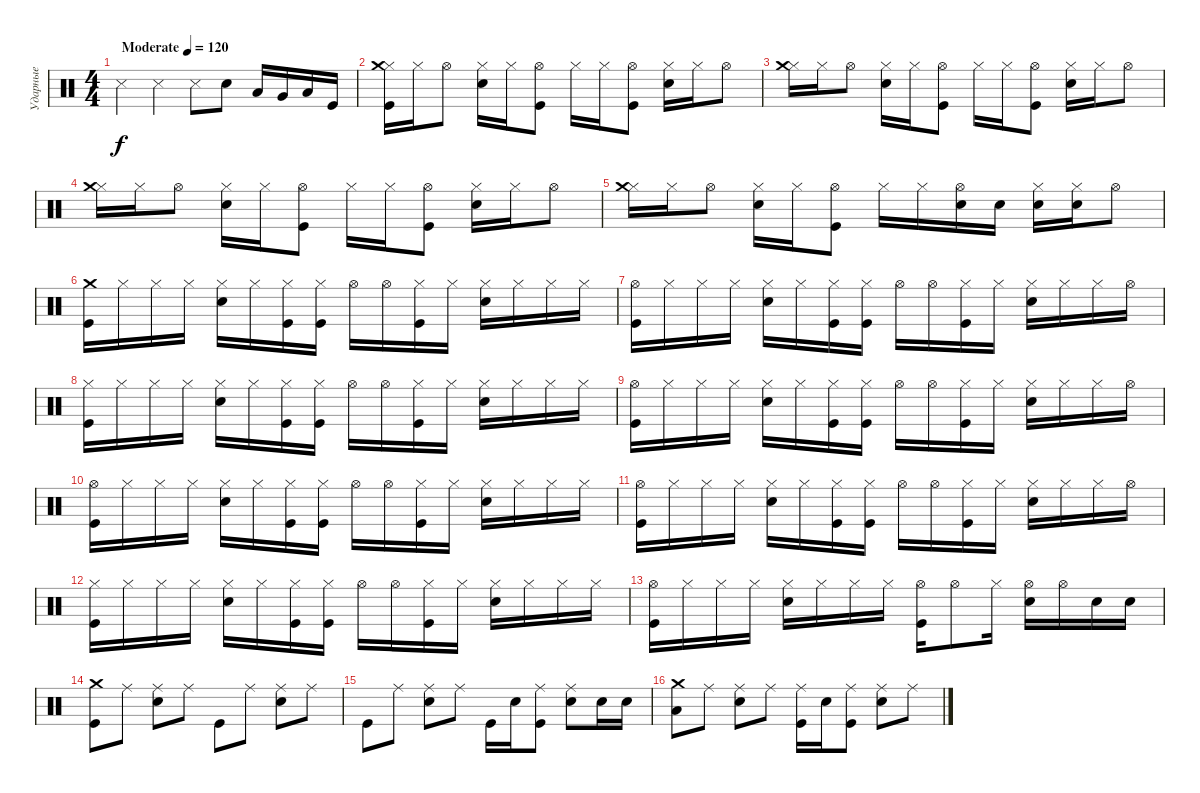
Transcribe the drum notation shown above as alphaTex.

\track ("Ударные" "Ударные") {instrument percussion}
\staff {score}
\articulation defaults
\ts (4 4)
\tempo (120 "Moderate")
\clef neutral
\ks c "Snare (side stick) 3".4{dy f} "Snare (side stick) 3".4 "Snare (side stick) 3".8 "Snare (hit) 2".8 "Low Tom (hit)".16 "Very Low Tom (hit)".16 "Low Floor Tom (hit)".16 "Kick (hit)".16
|
("Hi-Hat (closed)" "Kick (hit)" "Crash medium (hit)").16 "Hi-Hat (closed)".16 "Hi-Hat (open)".8 ("Hi-Hat (closed)" "Snare (hit) 2").16 "Hi-Hat (closed)".16 ("Hi-Hat (open)" "Kick (hit)").8 "Hi-Hat (closed)".16 "Hi-Hat (closed)".16 ("Hi-Hat (open)" "Kick (hit)").8 ("Hi-Hat (closed)" "Snare (hit) 2").16 "Hi-Hat (closed)".16 "Hi-Hat (open)".8 |
("Hi-Hat (closed)" "Crash medium (hit)").16 "Hi-Hat (closed)".16 "Hi-Hat (open)".8 ("Hi-Hat (closed)" "Snare (hit) 2").16 "Hi-Hat (closed)".16 ("Hi-Hat (open)" "Kick (hit)").8 "Hi-Hat (closed)".16 "Hi-Hat (closed)".16 ("Hi-Hat (open)" "Kick (hit)").8 ("Hi-Hat (closed)" "Snare (hit) 2").16 "Hi-Hat (closed)".16 "Hi-Hat (open)".8 |
("Hi-Hat (closed)" "Crash medium (hit)").16 "Hi-Hat (closed)".16 "Hi-Hat (open)".8 ("Hi-Hat (closed)" "Snare (hit) 2").16 "Hi-Hat (closed)".16 ("Hi-Hat (open)" "Kick (hit)").8 "Hi-Hat (closed)".16 "Hi-Hat (closed)".16 ("Hi-Hat (open)" "Kick (hit)").8 ("Hi-Hat (closed)" "Snare (hit) 2").16 "Hi-Hat (closed)".16 "Hi-Hat (open)".8 |
("Hi-Hat (closed)" "Crash medium (hit)").16 "Hi-Hat (closed)".16 "Hi-Hat (open)".8 ("Hi-Hat (closed)" "Snare (hit) 2").16 "Hi-Hat (closed)".16 ("Hi-Hat (open)" "Kick (hit)").8 "Hi-Hat (closed)".16 "Hi-Hat (closed)".16 ("Hi-Hat (open)" "Snare (hit) 2").16 "Snare (hit) 2".16 ("Hi-Hat (closed)" "Snare (hit) 2").16 ("Hi-Hat (closed)" "Snare (hit) 2").16 "Hi-Hat (open)".8 |
("Crash medium (hit)" "Kick (hit)").16 "Hi-Hat (closed)".16 "Hi-Hat (closed)".16 "Hi-Hat (closed)".16 ("Hi-Hat (closed)" "Snare (hit) 2").16 "Hi-Hat (closed)".16 ("Hi-Hat (closed)" "Kick (hit)").16 ("Hi-Hat (closed)" "Kick (hit)").16 "Hi-Hat (open)".16 "Hi-Hat (open)".16 ("Hi-Hat (closed)" "Kick (hit)").16 "Hi-Hat (closed)".16 ("Hi-Hat (closed)" "Snare (hit) 2").16 "Hi-Hat (closed)".16 "Hi-Hat (closed)".16 "Hi-Hat (closed)".16 |
("Hi-Hat (open)" "Kick (hit)").16 "Hi-Hat (closed)".16 "Hi-Hat (closed)".16 "Hi-Hat (closed)".16 ("Hi-Hat (closed)" "Snare (hit) 2").16 "Hi-Hat (closed)".16 ("Hi-Hat (closed)" "Kick (hit)").16 ("Hi-Hat (closed)" "Kick (hit)").16 "Hi-Hat (open)".16 "Hi-Hat (open)".16 ("Hi-Hat (closed)" "Kick (hit)").16 "Hi-Hat (closed)".16 ("Hi-Hat (closed)" "Snare (hit) 2").16 "Hi-Hat (closed)".16 "Hi-Hat (closed)".16 "Hi-Hat (open)".16 |
("Hi-Hat (closed)" "Kick (hit)").16 "Hi-Hat (closed)".16 "Hi-Hat (closed)".16 "Hi-Hat (closed)".16 ("Hi-Hat (closed)" "Snare (hit) 2").16 "Hi-Hat (closed)".16 ("Hi-Hat (closed)" "Kick (hit)").16 ("Hi-Hat (closed)" "Kick (hit)").16 "Hi-Hat (open)".16 "Hi-Hat (open)".16 ("Hi-Hat (closed)" "Kick (hit)").16 "Hi-Hat (closed)".16 ("Hi-Hat (closed)" "Snare (hit) 2").16 "Hi-Hat (closed)".16 "Hi-Hat (closed)".16 "Hi-Hat (closed)".16 |
("Hi-Hat (open)" "Kick (hit)").16 "Hi-Hat (closed)".16 "Hi-Hat (closed)".16 "Hi-Hat (closed)".16 ("Hi-Hat (closed)" "Snare (hit) 2").16 "Hi-Hat (closed)".16 ("Hi-Hat (closed)" "Kick (hit)").16 ("Hi-Hat (closed)" "Kick (hit)").16 "Hi-Hat (open)".16 "Hi-Hat (open)".16 ("Hi-Hat (closed)" "Kick (hit)").16 "Hi-Hat (closed)".16 ("Hi-Hat (closed)" "Snare (hit) 2").16 "Hi-Hat (closed)".16 "Hi-Hat (closed)".16 "Hi-Hat (open)".16 |
("Hi-Hat (open)" "Kick (hit)").16 "Hi-Hat (closed)".16 "Hi-Hat (closed)".16 "Hi-Hat (closed)".16 ("Hi-Hat (closed)" "Snare (hit) 2").16 "Hi-Hat (closed)".16 ("Hi-Hat (closed)" "Kick (hit)").16 ("Hi-Hat (closed)" "Kick (hit)").16 "Hi-Hat (open)".16 "Hi-Hat (open)".16 ("Hi-Hat (closed)" "Kick (hit)").16 "Hi-Hat (closed)".16 ("Hi-Hat (closed)" "Snare (hit) 2").16 "Hi-Hat (closed)".16 "Hi-Hat (closed)".16 "Hi-Hat (closed)".16 |
("Hi-Hat (open)" "Kick (hit)").16 "Hi-Hat (closed)".16 "Hi-Hat (closed)".16 "Hi-Hat (closed)".16 ("Hi-Hat (closed)" "Snare (hit) 2").16 "Hi-Hat (closed)".16 ("Hi-Hat (closed)" "Kick (hit)").16 ("Hi-Hat (closed)" "Kick (hit)").16 "Hi-Hat (open)".16 "Hi-Hat (open)".16 ("Hi-Hat (closed)" "Kick (hit)").16 "Hi-Hat (closed)".16 ("Hi-Hat (closed)" "Snare (hit) 2").16 "Hi-Hat (closed)".16 "Hi-Hat (closed)".16 "Hi-Hat (open)".16 |
("Hi-Hat (closed)" "Kick (hit)").16 "Hi-Hat (closed)".16 "Hi-Hat (closed)".16 "Hi-Hat (closed)".16 ("Hi-Hat (closed)" "Snare (hit) 2").16 "Hi-Hat (closed)".16 ("Hi-Hat (closed)" "Kick (hit)").16 ("Hi-Hat (closed)" "Kick (hit)").16 "Hi-Hat (open)".16 "Hi-Hat (open)".16 ("Hi-Hat (closed)" "Kick (hit)").16 "Hi-Hat (closed)".16 ("Hi-Hat (closed)" "Snare (hit) 2").16 "Hi-Hat (closed)".16 "Hi-Hat (closed)".16 "Hi-Hat (closed)".16 |
("Hi-Hat (open)" "Kick (hit)").16 "Hi-Hat (closed)".16 "Hi-Hat (closed)".16 "Hi-Hat (closed)".16 ("Hi-Hat (closed)" "Snare (hit) 2").16 "Hi-Hat (closed)".16 "Hi-Hat (closed)".16 "Hi-Hat (closed)".16 ("Hi-Hat (open)" "Kick (hit)").16 "Hi-Hat (open)".8 "Hi-Hat (closed)".16 ("Hi-Hat (open)" "Snare (hit) 2").16 "Hi-Hat (open)".16 "Snare (hit) 2".16 "Snare (hit) 2".16 |
("Crash medium (hit)" "Kick (hit)").8 "Ride (middle)".8 ("Snare (hit) 2" "Ride (middle)").8 "Ride (middle)".8 "Kick (hit)".8 "Ride (middle)".8 ("Snare (hit) 2" "Ride (middle)").8 "Ride (middle)".8 |
"Kick (hit)".8 "Ride (middle)".8 ("Snare (hit) 2" "Ride (middle)").8 "Ride (middle)".8 "Kick (hit)".16 "Snare (hit) 2".16 ("Kick (hit)" "Ride (middle)").8 ("Snare (hit) 2" "Ride (middle)").8 "Snare (hit) 2".16 "Snare (hit) 2".16 |
("Low Floor Tom (hit)" "Crash medium (hit)").8 "Ride (middle)".8 ("Snare (hit) 2" "Ride (middle)").8 "Ride (middle)".8 ("Kick (hit)" "Ride (middle)").16 "Snare (hit) 2".16 ("Kick (hit)" "Ride (middle)").8 ("Snare (hit) 2" "Ride (middle)").8 "Ride (middle)".8
